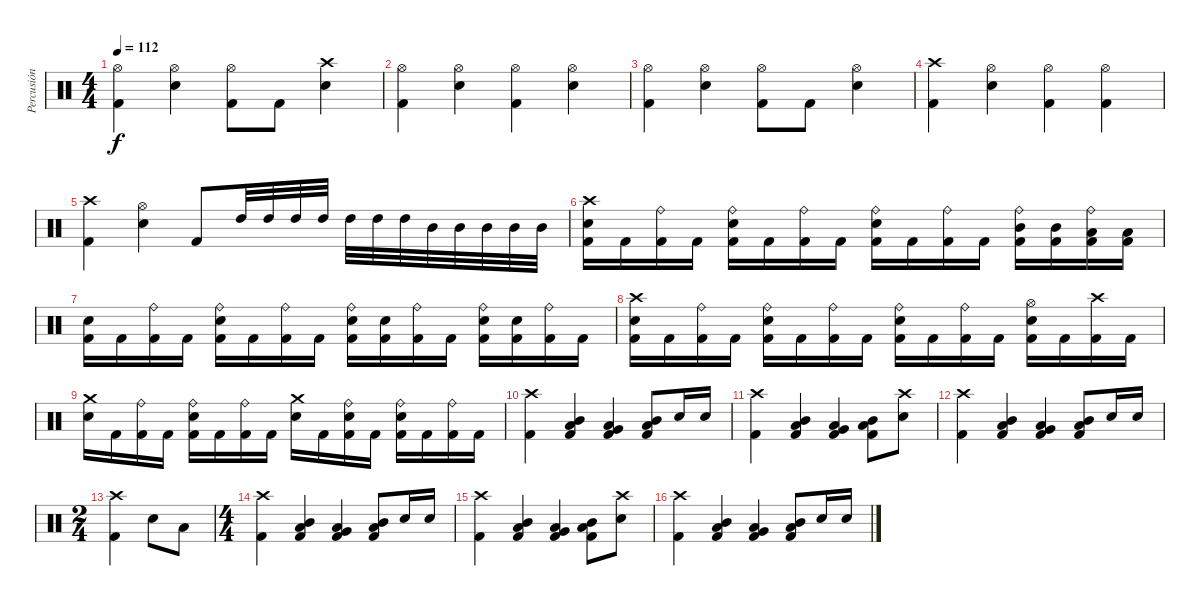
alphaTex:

\track ("Percusión" "Percusión") {instrument percussion}
\staff {score}
\articulation defaults
\ts (4 4)
\tempo 112
\clef neutral
\ks c
("Hi-Hat (open)" "Kick (hit) 2").4{dy f} ("Hi-Hat (open)" "Snare (hit) 2").4 ("Hi-Hat (open)" "Kick (hit) 2").8 "Kick (hit) 2".8 ("Crash high (hit)" "Snare (hit) 2").4 |
("Hi-Hat (open)" "Kick (hit) 2").4 ("Hi-Hat (open)" "Snare (hit) 2").4 ("Hi-Hat (open)" "Kick (hit) 2").4 ("Hi-Hat (open)" "Snare (hit) 2").4 |
("Hi-Hat (open)" "Kick (hit) 2").4 ("Hi-Hat (open)" "Snare (hit) 2").4 ("Hi-Hat (open)" "Kick (hit) 2").8 "Kick (hit) 2".8 ("Hi-Hat (open)" "Snare (hit) 2").4 |
("Crash high (hit)" "Kick (hit) 2").4 ("Hi-Hat (open)" "Snare (hit) 2").4 ("Hi-Hat (open)" "Kick (hit) 2").4 ("Hi-Hat (open)" "Kick (hit) 2").4 |
("Crash high (hit)" "Kick (hit) 2").4 ("Hi-Hat (open)" "Snare (hit) 2").4 "Kick (hit) 2".8 "High Tom (hit)".32 "High Tom (hit)".32 "High Tom (hit)".32 "High Tom (hit)".32 "High Tom (hit)".32 "High Tom (hit)".32 "High Tom (hit)".32 "Mid Tom (hit)".32 "Mid Tom (hit)".32 "Mid Tom (hit)".32 "Mid Tom (hit)".32 "Mid Tom (hit)".32 |
("Snare (hit) 2" "Crash high (hit)" "Kick (hit) 2").16 "Kick (hit) 2".16 ("Ride (bell)" "Kick (hit) 2").16 "Kick (hit) 2".16 ("Ride (bell)" "Snare (hit) 2" "Kick (hit) 2").16 "Kick (hit) 2".16 ("Ride (bell)" "Kick (hit) 2").16 "Kick (hit) 2".16 ("Ride (bell)" "Snare (hit) 2" "Kick (hit) 2").16 "Kick (hit) 2".16 ("Ride (bell)" "Kick (hit) 2").16 "Kick (hit) 2".16 ("Ride (bell)" "Mid Tom (hit)" "Kick (hit) 2").16 ("Mid Tom (hit)" "Kick (hit) 2").16 ("Ride (bell)" "Low Tom (hit)" "Kick (hit) 2").16 ("Low Tom (hit)" "Kick (hit) 2").16 |
("Snare (hit) 2" "Kick (hit) 2").16 "Kick (hit) 2".16 ("Ride (bell)" "Kick (hit) 2").16 "Kick (hit) 2".16 ("Ride (bell)" "Snare (hit) 2" "Kick (hit) 2").16 "Kick (hit) 2".16 ("Ride (bell)" "Kick (hit) 2").16 "Kick (hit) 2".16 ("Ride (bell)" "Snare (hit) 2" "Kick (hit) 2").16 ("Snare (hit) 2" "Kick (hit) 2").16 ("Ride (bell)" "Kick (hit) 2").16 "Kick (hit) 2".16 ("Ride (bell)" "Snare (hit) 2" "Kick (hit) 2").16 ("Snare (hit) 2" "Kick (hit) 2").16 ("Ride (bell)" "Kick (hit) 2").16 "Kick (hit) 2".16 |
("Snare (hit) 2" "Crash high (hit)" "Kick (hit) 2").16 "Kick (hit) 2".16 ("Ride (bell)" "Kick (hit) 2").16 "Kick (hit) 2".16 ("Ride (bell)" "Snare (hit) 2" "Kick (hit) 2").16 "Kick (hit) 2".16 ("Ride (bell)" "Kick (hit) 2").16 "Kick (hit) 2".16 ("Ride (bell)" "Snare (hit) 2" "Kick (hit) 2").16 "Kick (hit) 2".16 ("Ride (bell)" "Kick (hit) 2").16 "Kick (hit) 2".16 ("Hi-Hat (open)" "Snare (hit) 2" "Kick (hit) 2").16 "Kick (hit) 2".16 ("Kick (hit) 2" "Crash high (hit)").16 "Kick (hit) 2".16 |
("Snare (hit) 2" "Crash medium (hit)").16 "Kick (hit) 2".16 ("Ride (bell)" "Kick (hit) 2").16 "Kick (hit) 2".16 ("Ride (bell)" "Snare (hit) 2" "Kick (hit) 2").16 "Kick (hit) 2".16 ("Ride (bell)" "Kick (hit) 2").16 "Kick (hit) 2".16 ("Snare (hit) 2" "Crash medium (hit)").16 "Kick (hit) 2".16 ("Ride (bell)" "Snare (hit) 2" "Kick (hit) 2").16 "Kick (hit) 2".16 ("Ride (bell)" "Snare (hit) 2" "Kick (hit) 2").16 "Kick (hit) 2".16 ("Ride (bell)" "Kick (hit) 2").16 "Kick (hit) 2".16 |
("Kick (hit) 2" "Crash high (hit)").4 ("Mid Tom (hit)" "Low Tom (hit)" "Kick (hit) 2").4 ("Very Low Tom (hit)" "Low Tom (hit)" "Kick (hit) 2").4 ("Mid Tom (hit)" "Low Tom (hit)" "Kick (hit) 2").8 "Snare (hit) 2".16 "Snare (hit) 2".16 |
("Kick (hit) 2" "Crash high (hit)").4 ("Mid Tom (hit)" "Low Tom (hit)" "Kick (hit) 2").4 ("Very Low Tom (hit)" "Low Tom (hit)" "Kick (hit) 2").4 ("Mid Tom (hit)" "Low Tom (hit)" "Kick (hit) 2").8 ("Snare (hit) 2" "Crash high (hit)").8 |
("Kick (hit) 2" "Crash high (hit)").4 ("Mid Tom (hit)" "Low Tom (hit)" "Kick (hit) 2").4 ("Very Low Tom (hit)" "Low Tom (hit)" "Kick (hit) 2").4 ("Mid Tom (hit)" "Low Tom (hit)" "Kick (hit) 2").8 "Snare (hit) 2".16 "Snare (hit) 2".16 |
\ts (2 4)
("Kick (hit) 2" "Crash high (hit)").4 "Snare (hit) 2".8 "Low Tom (hit)".8 |
\ts (4 4)
("Kick (hit) 2" "Crash high (hit)").4 ("Mid Tom (hit)" "Low Tom (hit)" "Kick (hit) 2").4 ("Very Low Tom (hit)" "Low Tom (hit)" "Kick (hit) 2").4 ("Mid Tom (hit)" "Low Tom (hit)" "Kick (hit) 2").8 "Snare (hit) 2".16 "Snare (hit) 2".16 |
("Kick (hit) 2" "Crash high (hit)").4 ("Mid Tom (hit)" "Low Tom (hit)" "Kick (hit) 2").4 ("Very Low Tom (hit)" "Low Tom (hit)" "Kick (hit) 2").4 ("Mid Tom (hit)" "Low Tom (hit)" "Kick (hit) 2").8 ("Snare (hit) 2" "Crash high (hit)").8 |
("Kick (hit) 2" "Crash high (hit)").4 ("Mid Tom (hit)" "Low Tom (hit)" "Kick (hit) 2").4 ("Very Low Tom (hit)" "Low Tom (hit)" "Kick (hit) 2").4 ("Mid Tom (hit)" "Low Tom (hit)" "Kick (hit) 2").8 "Snare (hit) 2".16 "Snare (hit) 2".16
